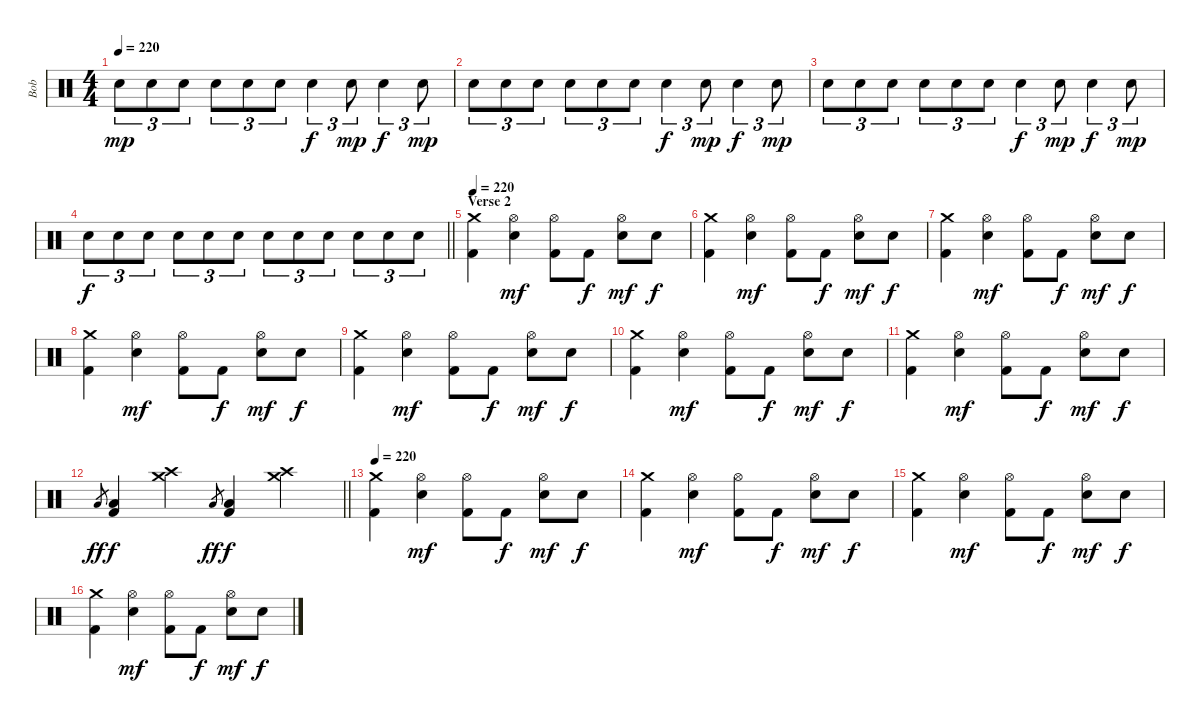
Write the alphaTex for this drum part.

\track ("Bob" "Bob") {instrument percussion}
\staff {score}
\articulation defaults
\ts (4 4)
\tempo 220
\clef neutral
\ks c "Snare (hit) 2".8{tu (3 2) dy mp} "Snare (hit) 2".8{tu (3 2)} "Snare (hit) 2".8{tu (3 2)} "Snare (hit) 2".8{tu (3 2)} "Snare (hit) 2".8{tu (3 2)} "Snare (hit) 2".8{tu (3 2)} "Electric Snare (hit)".4{tu (3 2) dy f} "Snare (hit) 2".8{tu (3 2) dy mp} "Electric Snare (hit)".4{tu (3 2) dy f} "Snare (hit) 2".8{tu (3 2) dy mp}
|
"Snare (hit) 2".8{tu (3 2)} "Snare (hit) 2".8{tu (3 2)} "Snare (hit) 2".8{tu (3 2)} "Snare (hit) 2".8{tu (3 2)} "Snare (hit) 2".8{tu (3 2)} "Snare (hit) 2".8{tu (3 2)} "Electric Snare (hit)".4{tu (3 2) dy f} "Snare (hit) 2".8{tu (3 2) dy mp} "Electric Snare (hit)".4{tu (3 2) dy f} "Snare (hit) 2".8{tu (3 2) dy mp} |
"Snare (hit) 2".8{tu (3 2)} "Snare (hit) 2".8{tu (3 2)} "Snare (hit) 2".8{tu (3 2)} "Snare (hit) 2".8{tu (3 2)} "Snare (hit) 2".8{tu (3 2)} "Snare (hit) 2".8{tu (3 2)} "Electric Snare (hit)".4{tu (3 2) dy f} "Snare (hit) 2".8{tu (3 2) dy mp} "Electric Snare (hit)".4{tu (3 2) dy f} "Snare (hit) 2".8{tu (3 2) dy mp} |
\barLineRight lightlight "Electric Snare (hit)".8{tu (3 2) dy f} "Electric Snare (hit)".8{tu (3 2)} "Electric Snare (hit)".8{tu (3 2)} "Electric Snare (hit)".8{tu (3 2)} "Electric Snare (hit)".8{tu (3 2)} "Electric Snare (hit)".8{tu (3 2)} "Electric Snare (hit)".8{tu (3 2)} "Electric Snare (hit)".8{tu (3 2)} "Electric Snare (hit)".8{tu (3 2)} "Electric Snare (hit)".8{tu (3 2)} "Electric Snare (hit)".8{tu (3 2)} "Electric Snare (hit)".8{tu (3 2)}
|
\section ("" "Verse 2")
\tempo 220
("Crash medium (hit)" "Kick (hit) 2").4 ("Hi-Hat (open)" "Electric Snare (hit)").4{dy mf} ("Hi-Hat (open)" "Kick (hit) 2").8 "Kick (hit) 2".8{dy f} ("Hi-Hat (open)" "Electric Snare (hit)").8{dy mf} "Electric Snare (hit)".8{dy f} |
("Crash medium (hit)" "Kick (hit) 2").4 ("Hi-Hat (open)" "Electric Snare (hit)").4{dy mf} ("Hi-Hat (open)" "Kick (hit) 2").8 "Kick (hit) 2".8{dy f} ("Hi-Hat (open)" "Electric Snare (hit)").8{dy mf} "Electric Snare (hit)".8{dy f} |
("Crash medium (hit)" "Kick (hit) 2").4 ("Hi-Hat (open)" "Electric Snare (hit)").4{dy mf} ("Hi-Hat (open)" "Kick (hit) 2").8 "Kick (hit) 2".8{dy f} ("Hi-Hat (open)" "Electric Snare (hit)").8{dy mf} "Electric Snare (hit)".8{dy f} |
("Crash medium (hit)" "Kick (hit) 2").4 ("Hi-Hat (open)" "Electric Snare (hit)").4{dy mf} ("Hi-Hat (open)" "Kick (hit) 2").8 "Kick (hit) 2".8{dy f} ("Hi-Hat (open)" "Electric Snare (hit)").8{dy mf} "Electric Snare (hit)".8{dy f} |
("Crash medium (hit)" "Kick (hit) 2").4 ("Hi-Hat (open)" "Electric Snare (hit)").4{dy mf} ("Hi-Hat (open)" "Kick (hit) 2").8 "Kick (hit) 2".8{dy f} ("Hi-Hat (open)" "Electric Snare (hit)").8{dy mf} "Electric Snare (hit)".8{dy f} |
("Crash medium (hit)" "Kick (hit) 2").4 ("Hi-Hat (open)" "Electric Snare (hit)").4{dy mf} ("Hi-Hat (open)" "Kick (hit) 2").8 "Kick (hit) 2".8{dy f} ("Hi-Hat (open)" "Electric Snare (hit)").8{dy mf} "Electric Snare (hit)".8{dy f} |
("Crash medium (hit)" "Kick (hit) 2").4 ("Hi-Hat (open)" "Electric Snare (hit)").4{dy mf} ("Hi-Hat (open)" "Kick (hit) 2").8 "Kick (hit) 2".8{dy f} ("Hi-Hat (open)" "Electric Snare (hit)").8{dy mf} "Electric Snare (hit)".8{dy f} |
\barLineRight lightlight "Low Floor Tom (hit)".8{gr dy ff}
("Low Floor Tom (hit)" "Kick (hit) 2").4{dy f} ("Crash medium (hit)" "Crash high (hit)").4 "Low Floor Tom (hit)".8{gr dy ff} ("Low Floor Tom (hit)" "Kick (hit) 2").4{dy f} ("Crash medium (hit)" "Crash high (hit)").4 |
\tempo 220
("Crash medium (hit)" "Kick (hit) 2").4 ("Hi-Hat (open)" "Electric Snare (hit)").4{dy mf} ("Hi-Hat (open)" "Kick (hit) 2").8 "Kick (hit) 2".8{dy f} ("Hi-Hat (open)" "Electric Snare (hit)").8{dy mf} "Electric Snare (hit)".8{dy f} |
("Crash medium (hit)" "Kick (hit) 2").4 ("Hi-Hat (open)" "Electric Snare (hit)").4{dy mf} ("Hi-Hat (open)" "Kick (hit) 2").8 "Kick (hit) 2".8{dy f} ("Hi-Hat (open)" "Electric Snare (hit)").8{dy mf} "Electric Snare (hit)".8{dy f} |
("Crash medium (hit)" "Kick (hit) 2").4 ("Hi-Hat (open)" "Electric Snare (hit)").4{dy mf} ("Hi-Hat (open)" "Kick (hit) 2").8 "Kick (hit) 2".8{dy f} ("Hi-Hat (open)" "Electric Snare (hit)").8{dy mf} "Electric Snare (hit)".8{dy f} |
("Crash medium (hit)" "Kick (hit) 2").4 ("Hi-Hat (open)" "Electric Snare (hit)").4{dy mf} ("Hi-Hat (open)" "Kick (hit) 2").8 "Kick (hit) 2".8{dy f} ("Hi-Hat (open)" "Electric Snare (hit)").8{dy mf} "Electric Snare (hit)".8{dy f}
